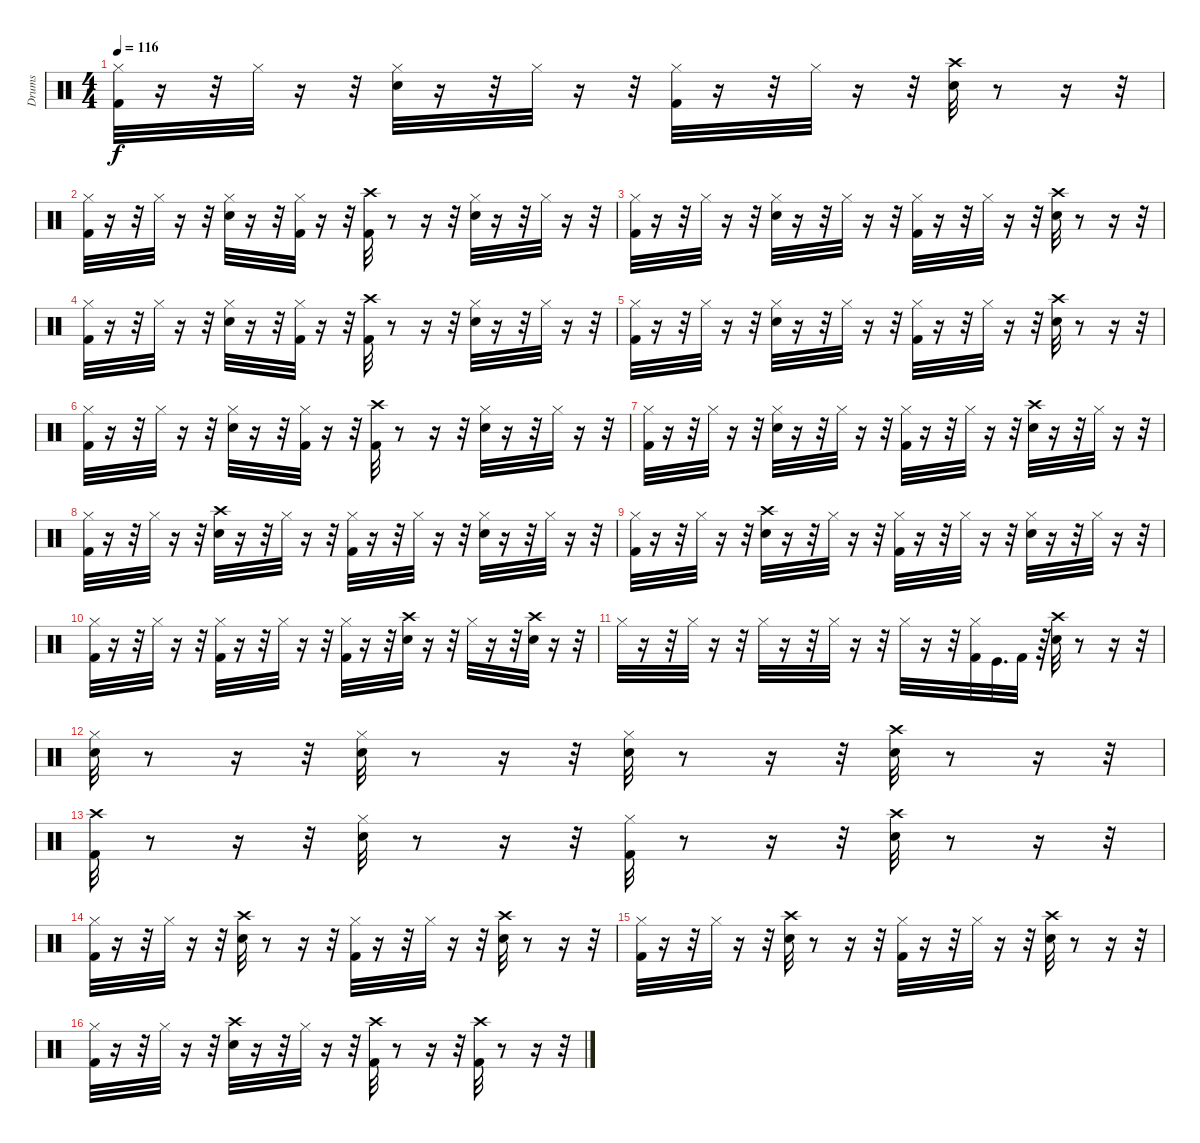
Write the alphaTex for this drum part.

\track ("Drums" "Drums") {instrument percussion}
\staff {score}
\articulation defaults
\ts (4 4)
\tempo 116
\clef neutral
\ks c
("Kick (hit) 2" "Hi-Hat (closed)").32{dy f} r.16 r.32 "Hi-Hat (closed)".32 r.16 r.32 ("Snare (hit) 2" "Hi-Hat (closed)").32 r.16 r.32 "Hi-Hat (closed)".32 r.16 r.32 ("Hi-Hat (closed)" "Kick (hit) 2").32 r.16 r.32 "Hi-Hat (closed)".32 r.16 r.32 ("Crash high (hit)" "Snare (hit) 2").32 r.8 r.16 r.32 |
("Kick (hit) 2" "Hi-Hat (closed)").32 r.16 r.32 "Hi-Hat (closed)".32 r.16 r.32 ("Snare (hit) 2" "Hi-Hat (closed)").32 r.16 r.32 ("Kick (hit) 2" "Hi-Hat (closed)").32 r.16 r.32 ("Crash high (hit)" "Kick (hit) 2").32 r.8 r.16 r.32 ("Hi-Hat (closed)" "Snare (hit) 2").32 r.16 r.32 "Hi-Hat (closed)".32 r.16 r.32 |
("Kick (hit) 2" "Hi-Hat (closed)").32 r.16 r.32 "Hi-Hat (closed)".32 r.16 r.32 ("Snare (hit) 2" "Hi-Hat (closed)").32 r.16 r.32 "Hi-Hat (closed)".32 r.16 r.32 ("Hi-Hat (closed)" "Kick (hit) 2").32 r.16 r.32 "Hi-Hat (closed)".32 r.16 r.32 ("Crash high (hit)" "Snare (hit) 2").32 r.8 r.16 r.32 |
("Kick (hit) 2" "Hi-Hat (closed)").32 r.16 r.32 "Hi-Hat (closed)".32 r.16 r.32 ("Snare (hit) 2" "Hi-Hat (closed)").32 r.16 r.32 ("Kick (hit) 2" "Hi-Hat (closed)").32 r.16 r.32 ("Crash high (hit)" "Kick (hit) 2").32 r.8 r.16 r.32 ("Hi-Hat (closed)" "Snare (hit) 2").32 r.16 r.32 "Hi-Hat (closed)".32 r.16 r.32 |
("Kick (hit) 2" "Hi-Hat (closed)").32 r.16 r.32 "Hi-Hat (closed)".32 r.16 r.32 ("Snare (hit) 2" "Hi-Hat (closed)").32 r.16 r.32 "Hi-Hat (closed)".32 r.16 r.32 ("Hi-Hat (closed)" "Kick (hit) 2").32 r.16 r.32 "Hi-Hat (closed)".32 r.16 r.32 ("Crash high (hit)" "Snare (hit) 2").32 r.8 r.16 r.32 |
("Kick (hit) 2" "Hi-Hat (closed)").32 r.16 r.32 "Hi-Hat (closed)".32 r.16 r.32 ("Snare (hit) 2" "Hi-Hat (closed)").32 r.16 r.32 ("Kick (hit) 2" "Hi-Hat (closed)").32 r.16 r.32 ("Crash high (hit)" "Kick (hit) 2").32 r.8 r.16 r.32 ("Hi-Hat (closed)" "Snare (hit) 2").32 r.16 r.32 "Hi-Hat (closed)".32 r.16 r.32 |
("Kick (hit) 2" "Hi-Hat (closed)").32 r.16 r.32 "Hi-Hat (closed)".32 r.16 r.32 ("Snare (hit) 2" "Hi-Hat (closed)").32 r.16 r.32 "Hi-Hat (closed)".32 r.16 r.32 ("Hi-Hat (closed)" "Kick (hit) 2").32 r.16 r.32 "Hi-Hat (closed)".32 r.16 r.32 ("Crash high (hit)" "Snare (hit) 2").32 r.16 r.32 "Hi-Hat (closed)".32 r.16 r.32 |
("Hi-Hat (closed)" "Kick (hit) 2").32 r.16 r.32 "Hi-Hat (closed)".32 r.16 r.32 ("Crash high (hit)" "Snare (hit) 2").32 r.16 r.32 "Hi-Hat (closed)".32 r.16 r.32 ("Hi-Hat (closed)" "Kick (hit) 2").32 r.16 r.32 "Hi-Hat (closed)".32 r.16 r.32 ("Hi-Hat (closed)" "Snare (hit) 2").32 r.16 r.32 "Hi-Hat (closed)".32 r.16 r.32 |
("Hi-Hat (closed)" "Kick (hit) 2").32 r.16 r.32 "Hi-Hat (closed)".32 r.16 r.32 ("Crash high (hit)" "Snare (hit) 2").32 r.16 r.32 "Hi-Hat (closed)".32 r.16 r.32 ("Hi-Hat (closed)" "Kick (hit) 2").32 r.16 r.32 "Hi-Hat (closed)".32 r.16 r.32 ("Hi-Hat (closed)" "Snare (hit) 2").32 r.16 r.32 "Hi-Hat (closed)".32 r.16 r.32 |
("Hi-Hat (closed)" "Kick (hit) 2").32 r.16 r.32 "Hi-Hat (closed)".32 r.16 r.32 ("Hi-Hat (closed)" "Kick (hit) 2").32 r.16 r.32 "Hi-Hat (closed)".32 r.16 r.32 ("Hi-Hat (closed)" "Kick (hit) 2").32 r.16 r.32 ("Crash high (hit)" "Snare (hit) 2").32 r.16 r.32 "Hi-Hat (closed)".32 r.16 r.32 ("Snare (hit) 2" "Crash high (hit)").32 r.16 r.32 |
"Hi-Hat (closed)".32 r.16 r.32 "Hi-Hat (closed)".32 r.16 r.32 "Hi-Hat (closed)".32 r.16 r.32 "Hi-Hat (closed)".32 r.16 r.32 "Hi-Hat (closed)".32 r.16 r.32 ("Kick (hit) 2" "Hi-Hat (closed)").32 "Kick (hit)".32{d} "Kick (hit) 2".32 r.64 ("Crash high (hit)" "Snare (hit) 2").32 r.8 r.16 r.32 |
("Hi-Hat (closed)" "Snare (hit) 2").32 r.8 r.16 r.32 ("Hi-Hat (closed)" "Snare (hit) 2").32 r.8 r.16 r.32 ("Hi-Hat (closed)" "Snare (hit) 2").32 r.8 r.16 r.32 ("Crash high (hit)" "Snare (hit) 2").32 r.8 r.16 r.32 |
("Kick (hit) 2" "Crash high (hit)").32 r.8 r.16 r.32 ("Hi-Hat (closed)" "Snare (hit) 2").32 r.8 r.16 r.32 ("Hi-Hat (closed)" "Kick (hit) 2").32 r.8 r.16 r.32 ("Crash high (hit)" "Snare (hit) 2").32 r.8 r.16 r.32 |
("Kick (hit) 2" "Hi-Hat (closed)").32 r.16 r.32 "Hi-Hat (closed)".32 r.16 r.32 ("Crash high (hit)" "Snare (hit) 2").32 r.8 r.16 r.32 ("Hi-Hat (closed)" "Kick (hit) 2").32 r.16 r.32 "Hi-Hat (closed)".32 r.16 r.32 ("Crash high (hit)" "Snare (hit) 2").32 r.8 r.16 r.32 |
("Kick (hit) 2" "Hi-Hat (closed)").32 r.16 r.32 "Hi-Hat (closed)".32 r.16 r.32 ("Crash high (hit)" "Snare (hit) 2").32 r.8 r.16 r.32 ("Hi-Hat (closed)" "Kick (hit) 2").32 r.16 r.32 "Hi-Hat (closed)".32 r.16 r.32 ("Crash high (hit)" "Snare (hit) 2").32 r.8 r.16 r.32 |
("Hi-Hat (closed)" "Kick (hit) 2").32 r.16 r.32 "Hi-Hat (closed)".32 r.16 r.32 ("Crash high (hit)" "Snare (hit) 2").32 r.16 r.32 "Hi-Hat (closed)".32 r.16 r.32 ("Crash high (hit)" "Kick (hit) 2").32 r.8 r.16 r.32 ("Crash high (hit)" "Kick (hit) 2").32 r.8 r.16 r.32
